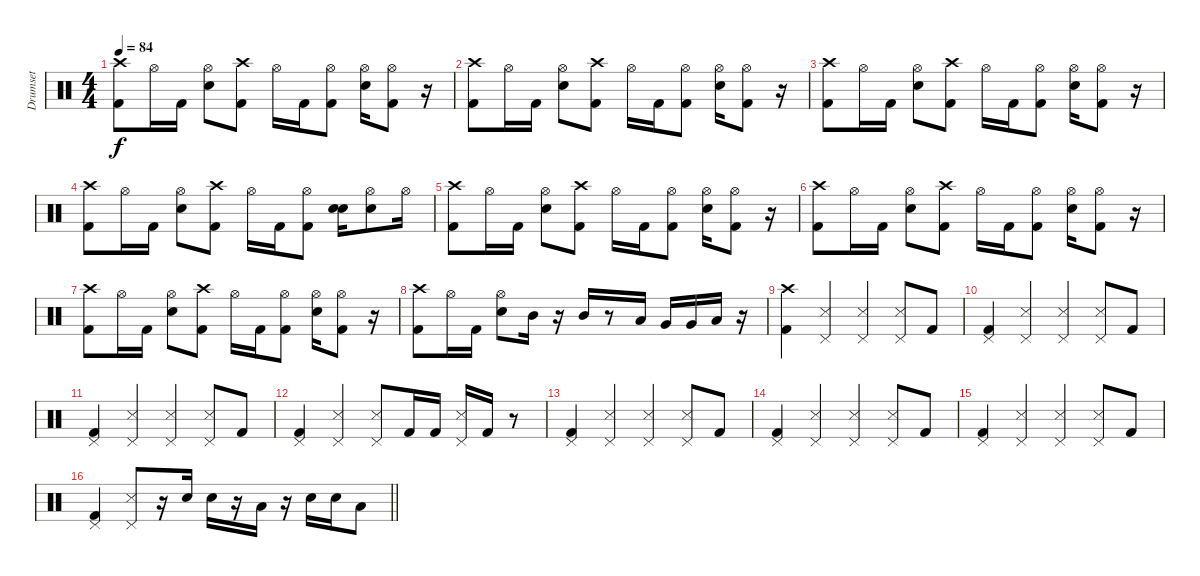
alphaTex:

\track ("Drumset" "Drumset") {instrument percussion}
\staff {score}
\articulation defaults
\ts (4 4)
\tempo 84
\clef neutral
\ks c
("Crash high (hit)" "Kick (hit) 2").8{dy f} "Hi-Hat (open)".16 "Kick (hit) 2".16 ("Hi-Hat (open)" "Snare (hit) 2").8 ("Crash high (hit)" "Kick (hit) 2").8 "Hi-Hat (open)".16 "Kick (hit) 2".16 ("Hi-Hat (open)" "Kick (hit) 2").8 ("Hi-Hat (open)" "Snare (hit) 2").16 ("Hi-Hat (open)" "Kick (hit) 2").8 r.16 |
("Crash high (hit)" "Kick (hit) 2").8 "Hi-Hat (open)".16 "Kick (hit) 2".16 ("Hi-Hat (open)" "Snare (hit) 2").8 ("Crash high (hit)" "Kick (hit) 2").8 "Hi-Hat (open)".16 "Kick (hit) 2".16 ("Hi-Hat (open)" "Kick (hit) 2").8 ("Hi-Hat (open)" "Snare (hit) 2").16 ("Hi-Hat (open)" "Kick (hit) 2").8 r.16 |
("Crash high (hit)" "Kick (hit) 2").8 "Hi-Hat (open)".16 "Kick (hit) 2".16 ("Hi-Hat (open)" "Snare (hit) 2").8 ("Crash high (hit)" "Kick (hit) 2").8 "Hi-Hat (open)".16 "Kick (hit) 2".16 ("Hi-Hat (open)" "Kick (hit) 2").8 ("Hi-Hat (open)" "Snare (hit) 2").16 ("Hi-Hat (open)" "Kick (hit) 2").8 r.16 |
("Crash high (hit)" "Kick (hit) 2").8 "Hi-Hat (open)".16 "Kick (hit) 2".16 ("Hi-Hat (open)" "Snare (hit) 2").8 ("Crash high (hit)" "Kick (hit) 2").8 "Hi-Hat (open)".16 "Kick (hit) 2".16 ("Hi-Hat (open)" "Kick (hit) 2").8 ("Snare (hit) 2" "Snare (hit) 2").16 ("Hi-Hat (open)" "Snare (hit) 2").8 "Hi-Hat (open)".16 |
("Crash high (hit)" "Kick (hit) 2").8 "Hi-Hat (open)".16 "Kick (hit) 2".16 ("Hi-Hat (open)" "Snare (hit) 2").8 ("Crash high (hit)" "Kick (hit) 2").8 "Hi-Hat (open)".16 "Kick (hit) 2".16 ("Hi-Hat (open)" "Kick (hit) 2").8 ("Hi-Hat (open)" "Snare (hit) 2").16 ("Hi-Hat (open)" "Kick (hit) 2").8 r.16 |
("Crash high (hit)" "Kick (hit) 2").8 "Hi-Hat (open)".16 "Kick (hit) 2".16 ("Hi-Hat (open)" "Snare (hit) 2").8 ("Crash high (hit)" "Kick (hit) 2").8 "Hi-Hat (open)".16 "Kick (hit) 2".16 ("Hi-Hat (open)" "Kick (hit) 2").8 ("Hi-Hat (open)" "Snare (hit) 2").16 ("Hi-Hat (open)" "Kick (hit) 2").8 r.16 |
("Crash high (hit)" "Kick (hit) 2").8 "Hi-Hat (open)".16 "Kick (hit) 2".16 ("Hi-Hat (open)" "Snare (hit) 2").8 ("Crash high (hit)" "Kick (hit) 2").8 "Hi-Hat (open)".16 "Kick (hit) 2".16 ("Hi-Hat (open)" "Kick (hit) 2").8 ("Hi-Hat (open)" "Snare (hit) 2").16 ("Hi-Hat (open)" "Kick (hit) 2").8 r.16 |
("Crash high (hit)" "Kick (hit) 2").8 "Hi-Hat (open)".16 "Kick (hit) 2".16 ("Hi-Hat (open)" "Snare (hit) 2").8 "Mid Tom (hit)".16 r.16 "Mid Tom (hit)".16 r.8 "Low Tom (hit)".16 "Very Low Tom (hit)".16 "Very Low Tom (hit)".16 "Low Floor Tom (hit)".16 r.16 |
("Crash high (hit)" "Kick (hit) 2").4 ("Pedal Hi-Hat (hit)" "Snare (side stick) 3").4 ("Pedal Hi-Hat (hit)" "Snare (side stick) 3").4 ("Pedal Hi-Hat (hit)" "Snare (side stick) 3").8 "Kick (hit) 2".8 |
("Pedal Hi-Hat (hit)" "Kick (hit) 2").4 ("Pedal Hi-Hat (hit)" "Snare (side stick) 3").4 ("Pedal Hi-Hat (hit)" "Snare (side stick) 3").4 ("Pedal Hi-Hat (hit)" "Snare (side stick) 3").8 "Kick (hit) 2".8 |
("Pedal Hi-Hat (hit)" "Kick (hit) 2").4 ("Pedal Hi-Hat (hit)" "Snare (side stick) 3").4 ("Pedal Hi-Hat (hit)" "Snare (side stick) 3").4 ("Pedal Hi-Hat (hit)" "Snare (side stick) 3").8 "Kick (hit) 2".8 |
("Pedal Hi-Hat (hit)" "Kick (hit) 2").4 ("Pedal Hi-Hat (hit)" "Snare (side stick) 3").4 ("Pedal Hi-Hat (hit)" "Snare (side stick) 3").8 "Kick (hit) 2".16 "Kick (hit) 2".16 ("Pedal Hi-Hat (hit)" "Snare (side stick) 3").16 "Kick (hit) 2".16 r.8 |
("Pedal Hi-Hat (hit)" "Kick (hit) 2").4 ("Pedal Hi-Hat (hit)" "Snare (side stick) 3").4 ("Pedal Hi-Hat (hit)" "Snare (side stick) 3").4 ("Pedal Hi-Hat (hit)" "Snare (side stick) 3").8 "Kick (hit) 2".8 |
("Pedal Hi-Hat (hit)" "Kick (hit) 2").4 ("Pedal Hi-Hat (hit)" "Snare (side stick) 3").4 ("Pedal Hi-Hat (hit)" "Snare (side stick) 3").4 ("Pedal Hi-Hat (hit)" "Snare (side stick) 3").8 "Kick (hit) 2".8 |
("Pedal Hi-Hat (hit)" "Kick (hit) 2").4 ("Pedal Hi-Hat (hit)" "Snare (side stick) 3").4 ("Pedal Hi-Hat (hit)" "Snare (side stick) 3").4 ("Pedal Hi-Hat (hit)" "Snare (side stick) 3").8 "Kick (hit) 2".8 |
\barLineRight lightlight
("Pedal Hi-Hat (hit)" "Kick (hit) 2").4 ("Pedal Hi-Hat (hit)" "Snare (side stick) 3").8 r.16 "Snare (hit) 2".16 "Snare (hit) 2".16 r.16 "Low Tom (hit)".16 r.16 "Snare (hit) 2".16 "Snare (hit) 2".16 "Low Floor Tom (hit)".8
